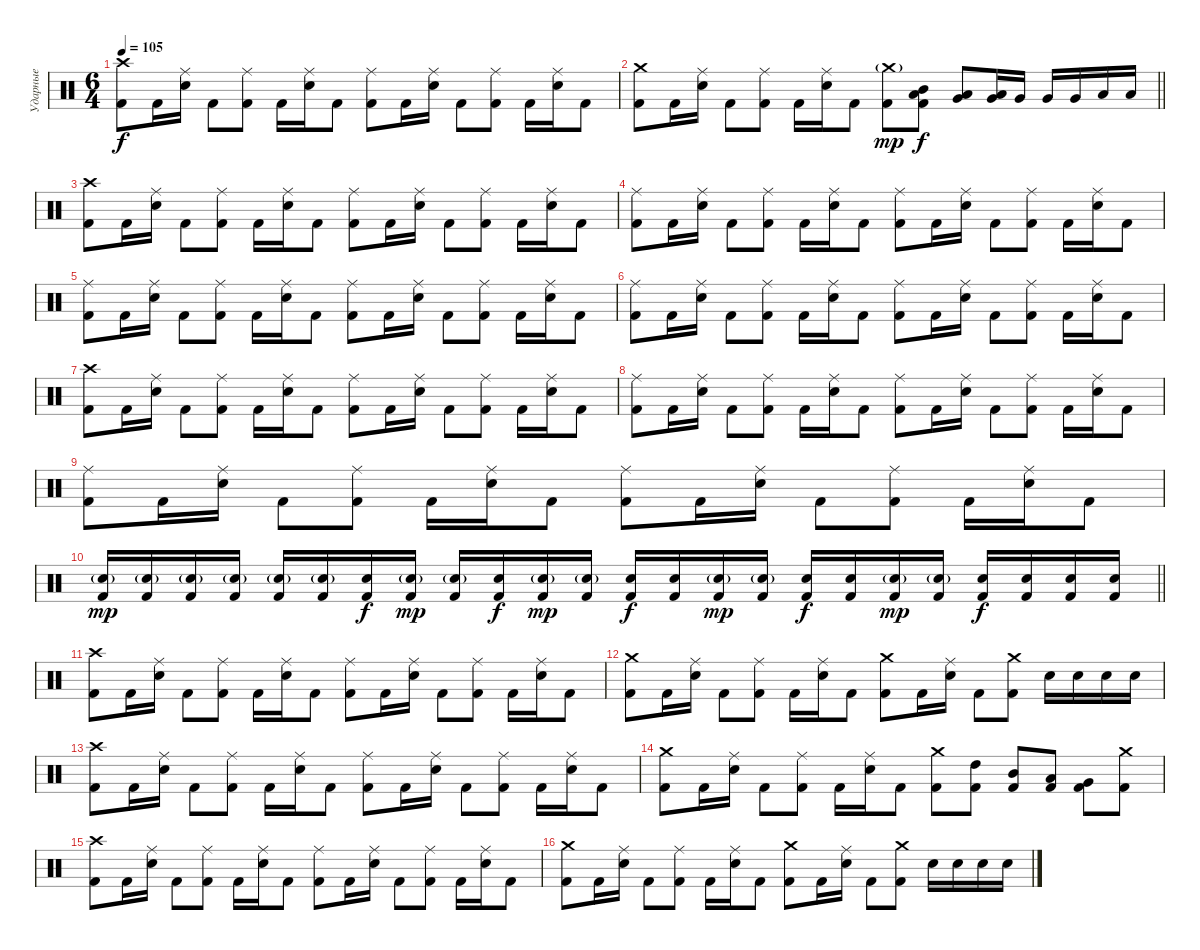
\track ("Ударные" "Ударные") {instrument percussion}
\staff {score}
\articulation defaults
\ts (6 4)
\tempo 105
\clef neutral
\ks c
("Kick (hit) 2" "Crash high (hit)").8{dy f} "Kick (hit) 2".16 ("Electric Snare (hit)" "Ride (middle)").16 "Kick (hit) 2".8 ("Kick (hit) 2" "Ride (middle)").8 "Kick (hit) 2".16 ("Electric Snare (hit)" "Ride (middle)").16 "Kick (hit) 2".8 ("Kick (hit) 2" "Ride (middle)").8 "Kick (hit) 2".16 ("Electric Snare (hit)" "Ride (middle)").16 "Kick (hit) 2".8 ("Kick (hit) 2" "Ride (middle)").8 "Kick (hit) 2".16 ("Electric Snare (hit)" "Ride (middle)").16 "Kick (hit) 2".8 |
\barLineRight lightlight
("Kick (hit) 2" "Crash medium (hit)").8 "Kick (hit) 2".16 ("Electric Snare (hit)" "Ride (middle)").16 "Kick (hit) 2".8 ("Kick (hit) 2" "Ride (middle)").8 "Kick (hit) 2".16 ("Electric Snare (hit)" "Ride (middle)").16 "Kick (hit) 2".8 ("Kick (hit) 2" "Crash medium (hit)"{g}).8{dy mp} ("Kick (hit) 2" "Low Tom (hit)" "Mid Tom (hit)").8{dy f} ("Very Low Tom (hit)" "Low Tom (hit)").8 ("Low Floor Tom (hit)" "Very Low Tom (hit)").16 "Very Low Tom (hit)".16 "Very Low Tom (hit)".16 "Very Low Tom (hit)".16 "Low Floor Tom (hit)".16 "Low Floor Tom (hit)".16 |
\section ("" "")
("Kick (hit) 2" "Crash high (hit)").8 "Kick (hit) 2".16 ("Electric Snare (hit)" "Ride (middle)").16 "Kick (hit) 2".8 ("Kick (hit) 2" "Ride (middle)").8 "Kick (hit) 2".16 ("Electric Snare (hit)" "Ride (middle)").16 "Kick (hit) 2".8 ("Kick (hit) 2" "Ride (middle)").8 "Kick (hit) 2".16 ("Electric Snare (hit)" "Ride (middle)").16 "Kick (hit) 2".8 ("Kick (hit) 2" "Ride (middle)").8 "Kick (hit) 2".16 ("Electric Snare (hit)" "Ride (middle)").16 "Kick (hit) 2".8 |
("Kick (hit) 2" "Ride (middle)").8 "Kick (hit) 2".16 ("Electric Snare (hit)" "Ride (middle)").16 "Kick (hit) 2".8 ("Kick (hit) 2" "Ride (middle)").8 "Kick (hit) 2".16 ("Electric Snare (hit)" "Ride (middle)").16 "Kick (hit) 2".8 ("Kick (hit) 2" "Ride (middle)").8 "Kick (hit) 2".16 ("Electric Snare (hit)" "Ride (middle)").16 "Kick (hit) 2".8 ("Kick (hit) 2" "Ride (middle)").8 "Kick (hit) 2".16 ("Electric Snare (hit)" "Ride (middle)").16 "Kick (hit) 2".8 |
("Kick (hit) 2" "Ride (middle)").8 "Kick (hit) 2".16 ("Electric Snare (hit)" "Ride (middle)").16 "Kick (hit) 2".8 ("Kick (hit) 2" "Ride (middle)").8 "Kick (hit) 2".16 ("Electric Snare (hit)" "Ride (middle)").16 "Kick (hit) 2".8 ("Kick (hit) 2" "Ride (middle)").8 "Kick (hit) 2".16 ("Electric Snare (hit)" "Ride (middle)").16 "Kick (hit) 2".8 ("Kick (hit) 2" "Ride (middle)").8 "Kick (hit) 2".16 ("Electric Snare (hit)" "Ride (middle)").16 "Kick (hit) 2".8 |
("Kick (hit) 2" "Ride (middle)").8 "Kick (hit) 2".16 ("Electric Snare (hit)" "Ride (middle)").16 "Kick (hit) 2".8 ("Kick (hit) 2" "Ride (middle)").8 "Kick (hit) 2".16 ("Electric Snare (hit)" "Ride (middle)").16 "Kick (hit) 2".8 ("Kick (hit) 2" "Ride (middle)").8 "Kick (hit) 2".16 ("Electric Snare (hit)" "Ride (middle)").16 "Kick (hit) 2".8 ("Kick (hit) 2" "Ride (middle)").8 "Kick (hit) 2".16 ("Electric Snare (hit)" "Ride (middle)").16 "Kick (hit) 2".8 |
("Kick (hit) 2" "Crash high (hit)").8 "Kick (hit) 2".16 ("Electric Snare (hit)" "Ride (middle)").16 "Kick (hit) 2".8 ("Kick (hit) 2" "Ride (middle)").8 "Kick (hit) 2".16 ("Electric Snare (hit)" "Ride (middle)").16 "Kick (hit) 2".8 ("Kick (hit) 2" "Ride (middle)").8 "Kick (hit) 2".16 ("Electric Snare (hit)" "Ride (middle)").16 "Kick (hit) 2".8 ("Kick (hit) 2" "Ride (middle)").8 "Kick (hit) 2".16 ("Electric Snare (hit)" "Ride (middle)").16 "Kick (hit) 2".8 |
("Kick (hit) 2" "Ride (middle)").8 "Kick (hit) 2".16 ("Electric Snare (hit)" "Ride (middle)").16 "Kick (hit) 2".8 ("Kick (hit) 2" "Ride (middle)").8 "Kick (hit) 2".16 ("Electric Snare (hit)" "Ride (middle)").16 "Kick (hit) 2".8 ("Kick (hit) 2" "Ride (middle)").8 "Kick (hit) 2".16 ("Electric Snare (hit)" "Ride (middle)").16 "Kick (hit) 2".8 ("Kick (hit) 2" "Ride (middle)").8 "Kick (hit) 2".16 ("Electric Snare (hit)" "Ride (middle)").16 "Kick (hit) 2".8 |
("Kick (hit) 2" "Ride (middle)").8 "Kick (hit) 2".16 ("Electric Snare (hit)" "Ride (middle)").16 "Kick (hit) 2".8 ("Kick (hit) 2" "Ride (middle)").8 "Kick (hit) 2".16 ("Electric Snare (hit)" "Ride (middle)").16 "Kick (hit) 2".8 ("Kick (hit) 2" "Ride (middle)").8 "Kick (hit) 2".16 ("Electric Snare (hit)" "Ride (middle)").16 "Kick (hit) 2".8 ("Kick (hit) 2" "Ride (middle)").8 "Kick (hit) 2".16 ("Electric Snare (hit)" "Ride (middle)").16 "Kick (hit) 2".8 |
\barLineRight lightlight
("Kick (hit) 2" "Electric Snare (hit)"{g}).16{dy mp} ("Kick (hit) 2" "Electric Snare (hit)"{g}).16 ("Kick (hit) 2" "Electric Snare (hit)"{g}).16 ("Kick (hit) 2" "Electric Snare (hit)"{g}).16 ("Kick (hit) 2" "Electric Snare (hit)"{g}).16 ("Kick (hit) 2" "Electric Snare (hit)"{g}).16 ("Kick (hit) 2" "Electric Snare (hit)").16{dy f} ("Kick (hit) 2" "Electric Snare (hit)"{g}).16{dy mp} ("Kick (hit) 2" "Electric Snare (hit)"{g}).16 ("Kick (hit) 2" "Electric Snare (hit)").16{dy f} ("Kick (hit) 2" "Electric Snare (hit)"{g}).16{dy mp} ("Kick (hit) 2" "Electric Snare (hit)"{g}).16 ("Kick (hit) 2" "Electric Snare (hit)").16{dy f} ("Kick (hit) 2" "Electric Snare (hit)").16 ("Kick (hit) 2" "Electric Snare (hit)"{g}).16{dy mp} ("Kick (hit) 2" "Electric Snare (hit)"{g}).16 ("Kick (hit) 2" "Electric Snare (hit)").16{dy f} ("Kick (hit) 2" "Electric Snare (hit)").16 ("Kick (hit) 2" "Electric Snare (hit)"{g}).16{dy mp} ("Kick (hit) 2" "Electric Snare (hit)"{g}).16 ("Kick (hit) 2" "Electric Snare (hit)").16{dy f} ("Kick (hit) 2" "Electric Snare (hit)").16 ("Kick (hit) 2" "Electric Snare (hit)").16 ("Kick (hit) 2" "Electric Snare (hit)").16 |
\section ("" "")
("Kick (hit) 2" "Crash high (hit)").8 "Kick (hit) 2".16 ("Electric Snare (hit)" "Ride (middle)").16 "Kick (hit) 2".8 ("Kick (hit) 2" "Ride (middle)").8 "Kick (hit) 2".16 ("Electric Snare (hit)" "Ride (middle)").16 "Kick (hit) 2".8 ("Kick (hit) 2" "Ride (middle)").8 "Kick (hit) 2".16 ("Electric Snare (hit)" "Ride (middle)").16 "Kick (hit) 2".8 ("Kick (hit) 2" "Ride (middle)").8 "Kick (hit) 2".16 ("Electric Snare (hit)" "Ride (middle)").16 "Kick (hit) 2".8 |
("Kick (hit) 2" "Crash medium (hit)").8 "Kick (hit) 2".16 ("Electric Snare (hit)" "Ride (middle)").16 "Kick (hit) 2".8 ("Kick (hit) 2" "Ride (middle)").8 "Kick (hit) 2".16 ("Electric Snare (hit)" "Ride (middle)").16 "Kick (hit) 2".8 ("Kick (hit) 2" "Crash medium (hit)").8 "Kick (hit) 2".16 ("Electric Snare (hit)" "Ride (middle)").16 "Kick (hit) 2".8 ("Kick (hit) 2" "Crash medium (hit)").8 "Electric Snare (hit)".16 "Electric Snare (hit)".16 "Electric Snare (hit)".16 "Electric Snare (hit)".16 |
("Kick (hit) 2" "Crash high (hit)").8 "Kick (hit) 2".16 ("Electric Snare (hit)" "Ride (middle)").16 "Kick (hit) 2".8 ("Kick (hit) 2" "Ride (middle)").8 "Kick (hit) 2".16 ("Electric Snare (hit)" "Ride (middle)").16 "Kick (hit) 2".8 ("Kick (hit) 2" "Ride (middle)").8 "Kick (hit) 2".16 ("Electric Snare (hit)" "Ride (middle)").16 "Kick (hit) 2".8 ("Kick (hit) 2" "Ride (middle)").8 "Kick (hit) 2".16 ("Electric Snare (hit)" "Ride (middle)").16 "Kick (hit) 2".8 |
("Kick (hit) 2" "Crash medium (hit)").8 "Kick (hit) 2".16 ("Electric Snare (hit)" "Ride (middle)").16 "Kick (hit) 2".8 ("Kick (hit) 2" "Ride (middle)").8 "Kick (hit) 2".16 ("Electric Snare (hit)" "Ride (middle)").16 "Kick (hit) 2".8 ("Kick (hit) 2" "Crash medium (hit)").8 ("Kick (hit) 2" "High Tom (hit)").8 ("Kick (hit) 2" "Mid Tom (hit)").8 ("Kick (hit) 2" "Low Tom (hit)").8 ("Kick (hit) 2" "Very Low Tom (hit)").8 ("Kick (hit) 2" "Crash medium (hit)").8 |
("Kick (hit) 2" "Crash high (hit)").8 "Kick (hit) 2".16 ("Electric Snare (hit)" "Ride (middle)").16 "Kick (hit) 2".8 ("Kick (hit) 2" "Ride (middle)").8 "Kick (hit) 2".16 ("Electric Snare (hit)" "Ride (middle)").16 "Kick (hit) 2".8 ("Kick (hit) 2" "Ride (middle)").8 "Kick (hit) 2".16 ("Electric Snare (hit)" "Ride (middle)").16 "Kick (hit) 2".8 ("Kick (hit) 2" "Ride (middle)").8 "Kick (hit) 2".16 ("Electric Snare (hit)" "Ride (middle)").16 "Kick (hit) 2".8 |
("Kick (hit) 2" "Crash medium (hit)").8 "Kick (hit) 2".16 ("Electric Snare (hit)" "Ride (middle)").16 "Kick (hit) 2".8 ("Kick (hit) 2" "Ride (middle)").8 "Kick (hit) 2".16 ("Electric Snare (hit)" "Ride (middle)").16 "Kick (hit) 2".8 ("Kick (hit) 2" "Crash medium (hit)").8 "Kick (hit) 2".16 ("Electric Snare (hit)" "Ride (middle)").16 "Kick (hit) 2".8 ("Kick (hit) 2" "Crash medium (hit)").8 "Electric Snare (hit)".16 "Electric Snare (hit)".16 "Electric Snare (hit)".16 "Electric Snare (hit)".16
